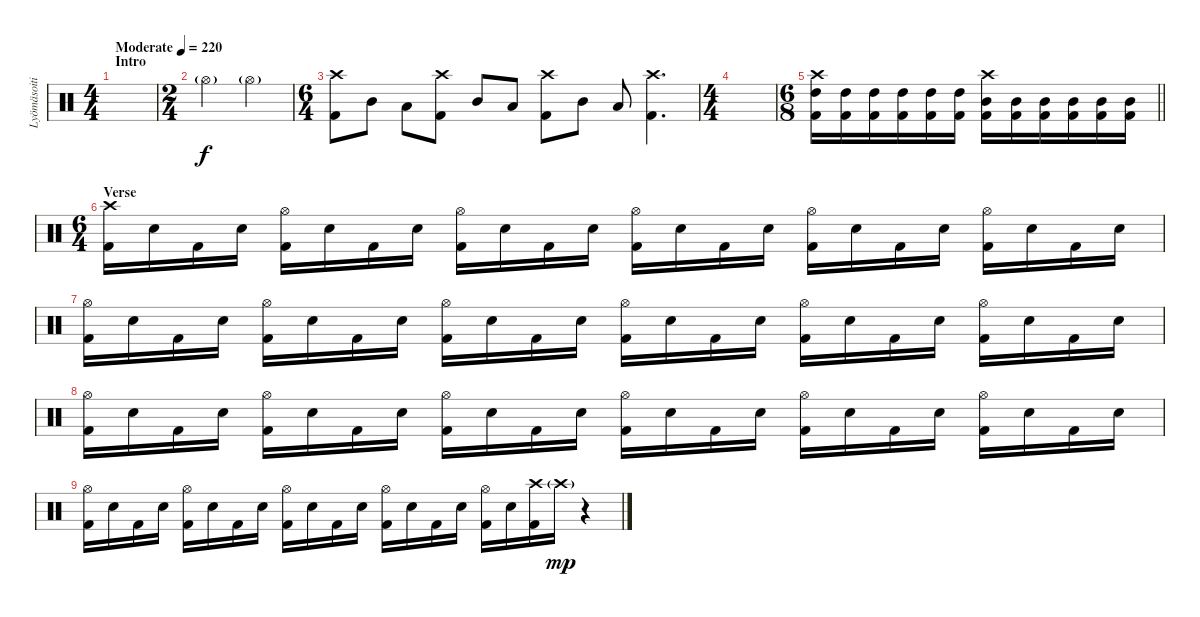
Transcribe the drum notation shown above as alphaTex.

\track ("Lyömäsoitin" "Lyömäsoiti") {instrument percussion}
\staff {score}
\articulation defaults
\ts (4 4)
\section ("" "Intro")
\tempo (220 "Moderate")
\clef neutral
\ks c
|
\ts (2 4)
"Hi-Hat (open)"{g}.4 "Hi-Hat (open)"{g}.4 |
\ts (6 4)
("Crash high (hit)" "Kick (hit) 2").8{dy f} "Mid Tom (hit)".8 "Low Tom (hit)".8 ("Crash high (hit)" "Kick (hit) 2").8 "Mid Tom (hit)".8 "Low Tom (hit)".8 ("Crash high (hit)" "Kick (hit) 2").8 "Mid Tom (hit)".8 "Low Tom (hit)".8 ("Crash high (hit)" "Kick (hit) 2").4{d} |
\ts (4 4)
|
\ts (6 8)
\barLineRight lightlight
("Crash high (hit)" "High Tom (hit)" "Kick (hit) 2").16 ("High Tom (hit)" "Kick (hit) 2").16 ("High Tom (hit)" "Kick (hit) 2").16 ("High Tom (hit)" "Kick (hit) 2").16 ("High Tom (hit)" "Kick (hit) 2").16 ("High Tom (hit)" "Kick (hit) 2").16 ("Crash high (hit)" "Mid Tom (hit)" "Kick (hit) 2").16 ("Mid Tom (hit)" "Kick (hit) 2").16 ("Mid Tom (hit)" "Kick (hit) 2").16 ("Mid Tom (hit)" "Kick (hit) 2").16 ("Mid Tom (hit)" "Kick (hit) 2").16 ("Mid Tom (hit)" "Kick (hit) 2").16 |
\ts (6 4)
\section ("" "Verse")
("Crash high (hit)" "Kick (hit) 2").16 "Electric Snare (hit)".16 "Kick (hit) 2".16 "Electric Snare (hit)".16 ("Hi-Hat (open)" "Kick (hit) 2").16 "Electric Snare (hit)".16 "Kick (hit) 2".16 "Electric Snare (hit)".16 ("Hi-Hat (open)" "Kick (hit) 2").16 "Electric Snare (hit)".16 "Kick (hit) 2".16 "Electric Snare (hit)".16 ("Hi-Hat (open)" "Kick (hit) 2").16 "Electric Snare (hit)".16 "Kick (hit) 2".16 "Electric Snare (hit)".16 ("Hi-Hat (open)" "Kick (hit) 2").16 "Electric Snare (hit)".16 "Kick (hit) 2".16 "Electric Snare (hit)".16 ("Hi-Hat (open)" "Kick (hit) 2").16 "Electric Snare (hit)".16 "Kick (hit) 2".16 "Electric Snare (hit)".16 |
("Hi-Hat (open)" "Kick (hit) 2").16 "Electric Snare (hit)".16 "Kick (hit) 2".16 "Electric Snare (hit)".16 ("Hi-Hat (open)" "Kick (hit) 2").16 "Electric Snare (hit)".16 "Kick (hit) 2".16 "Electric Snare (hit)".16 ("Hi-Hat (open)" "Kick (hit) 2").16 "Electric Snare (hit)".16 "Kick (hit) 2".16 "Electric Snare (hit)".16 ("Hi-Hat (open)" "Kick (hit) 2").16 "Electric Snare (hit)".16 "Kick (hit) 2".16 "Electric Snare (hit)".16 ("Hi-Hat (open)" "Kick (hit) 2").16 "Electric Snare (hit)".16 "Kick (hit) 2".16 "Electric Snare (hit)".16 ("Hi-Hat (open)" "Kick (hit) 2").16 "Electric Snare (hit)".16 "Kick (hit) 2".16 "Electric Snare (hit)".16 |
("Hi-Hat (open)" "Kick (hit) 2").16 "Electric Snare (hit)".16 "Kick (hit) 2".16 "Electric Snare (hit)".16 ("Hi-Hat (open)" "Kick (hit) 2").16 "Electric Snare (hit)".16 "Kick (hit) 2".16 "Electric Snare (hit)".16 ("Hi-Hat (open)" "Kick (hit) 2").16 "Electric Snare (hit)".16 "Kick (hit) 2".16 "Electric Snare (hit)".16 ("Hi-Hat (open)" "Kick (hit) 2").16 "Electric Snare (hit)".16 "Kick (hit) 2".16 "Electric Snare (hit)".16 ("Hi-Hat (open)" "Kick (hit) 2").16 "Electric Snare (hit)".16 "Kick (hit) 2".16 "Electric Snare (hit)".16 ("Hi-Hat (open)" "Kick (hit) 2").16 "Electric Snare (hit)".16 "Kick (hit) 2".16 "Electric Snare (hit)".16 |
("Hi-Hat (open)" "Kick (hit) 2").16 "Electric Snare (hit)".16 "Kick (hit) 2".16 "Electric Snare (hit)".16 ("Hi-Hat (open)" "Kick (hit) 2").16 "Electric Snare (hit)".16 "Kick (hit) 2".16 "Electric Snare (hit)".16 ("Hi-Hat (open)" "Kick (hit) 2").16 "Electric Snare (hit)".16 "Kick (hit) 2".16 "Electric Snare (hit)".16 ("Hi-Hat (open)" "Kick (hit) 2").16 "Electric Snare (hit)".16 "Kick (hit) 2".16 "Electric Snare (hit)".16 ("Hi-Hat (open)" "Kick (hit) 2").16 "Electric Snare (hit)".16 ("Crash high (hit)" "Kick (hit) 2").16 "Crash high (hit)"{g}.16{dy mp} r.4
